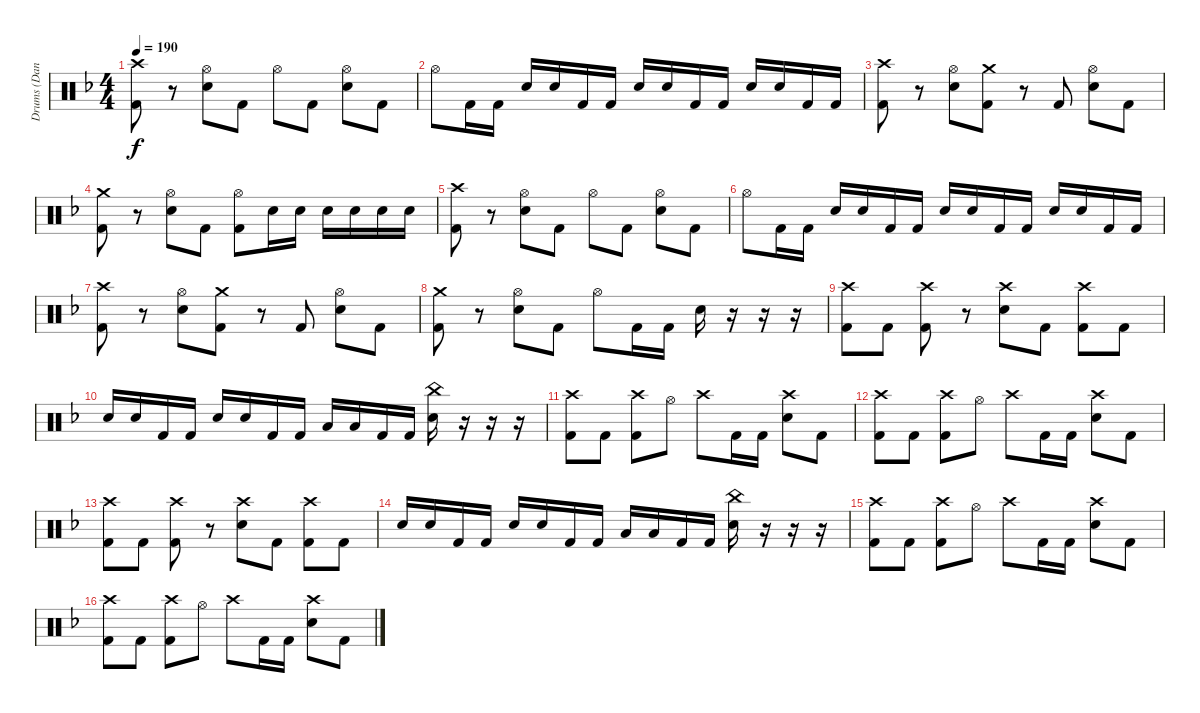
\track ("Drums (Daniel)" "Drums (Dan") {instrument percussion}
\staff {score}
\articulation defaults
\ts (4 4)
\tempo 190
\clef neutral
\ks dminor
("Crash high (hit)" "Kick (hit) 2").8{dy f} r.8 ("Hi-Hat (open)" "Electric Snare (hit)").8 "Kick (hit) 2".8 "Hi-Hat (open)".8 "Kick (hit) 2".8 ("Hi-Hat (open)" "Electric Snare (hit)").8 "Kick (hit) 2".8 |
"Hi-Hat (open)".8 "Kick (hit) 2".16 "Kick (hit) 2".16 "Electric Snare (hit)".16 "Electric Snare (hit)".16 "Kick (hit) 2".16 "Kick (hit) 2".16 "Electric Snare (hit)".16 "Electric Snare (hit)".16 "Kick (hit) 2".16 "Kick (hit) 2".16 "Electric Snare (hit)".16 "Electric Snare (hit)".16 "Kick (hit) 2".16 "Kick (hit) 2".16 |
("Crash high (hit)" "Kick (hit) 2").8 r.8 ("Hi-Hat (open)" "Electric Snare (hit)").8 ("Crash medium (hit)" "Kick (hit) 2").8 r.8 "Kick (hit) 2".8 ("Hi-Hat (open)" "Electric Snare (hit)").8 "Kick (hit) 2".8 |
("Crash medium (hit)" "Kick (hit) 2").8 r.8 ("Hi-Hat (open)" "Electric Snare (hit)").8 "Kick (hit) 2".8 ("Hi-Hat (open)" "Kick (hit) 2").8 "Electric Snare (hit)".16 "Electric Snare (hit)".16 "Electric Snare (hit)".16 "Electric Snare (hit)".16 "Electric Snare (hit)".16 "Electric Snare (hit)".16 |
("Crash high (hit)" "Kick (hit) 2").8 r.8 ("Hi-Hat (open)" "Electric Snare (hit)").8 "Kick (hit) 2".8 "Hi-Hat (open)".8 "Kick (hit) 2".8 ("Hi-Hat (open)" "Electric Snare (hit)").8 "Kick (hit) 2".8 |
"Hi-Hat (open)".8 "Kick (hit) 2".16 "Kick (hit) 2".16 "Electric Snare (hit)".16 "Electric Snare (hit)".16 "Kick (hit) 2".16 "Kick (hit) 2".16 "Electric Snare (hit)".16 "Electric Snare (hit)".16 "Kick (hit) 2".16 "Kick (hit) 2".16 "Electric Snare (hit)".16 "Electric Snare (hit)".16 "Kick (hit) 2".16 "Kick (hit) 2".16 |
("Crash high (hit)" "Kick (hit) 2").8 r.8 ("Hi-Hat (open)" "Electric Snare (hit)").8 ("Crash medium (hit)" "Kick (hit) 2").8 r.8 "Kick (hit) 2".8 ("Hi-Hat (open)" "Electric Snare (hit)").8 "Kick (hit) 2".8 |
("Crash medium (hit)" "Kick (hit) 2").8 r.8 ("Hi-Hat (open)" "Electric Snare (hit)").8 "Kick (hit) 2".8 "Hi-Hat (open)".8 "Kick (hit) 2".16 "Kick (hit) 2".16 "Electric Snare (hit)".16 r.16 r.16 r.16 |
("Crash high (hit)" "Kick (hit) 2").8 "Kick (hit) 2".8 ("Crash high (hit)" "Kick (hit) 2").8 r.8 ("Crash high (hit)" "Electric Snare (hit)").8 "Kick (hit) 2".8 ("Crash high (hit)" "Kick (hit) 2").8 "Kick (hit) 2".8 |
"Electric Snare (hit)".16 "Electric Snare (hit)".16 "Kick (hit) 2".16 "Kick (hit) 2".16 "Electric Snare (hit)".16 "Electric Snare (hit)".16 "Kick (hit) 2".16 "Kick (hit) 2".16 "Low Tom (hit)".16 "Low Tom (hit)".16 "Kick (hit) 2".16 "Kick (hit) 2".16 ("China (hit)" "Electric Snare (hit)").16 r.16 r.16 r.16 |
("Crash high (hit)" "Kick (hit) 2").8 "Kick (hit) 2".8 ("Crash high (hit)" "Kick (hit) 2").8 "Hi-Hat (open)".8 "Crash high (hit)".8 "Kick (hit) 2".16 "Kick (hit) 2".16 ("Crash high (hit)" "Electric Snare (hit)").8 "Kick (hit) 2".8 |
("Crash high (hit)" "Kick (hit) 2").8 "Kick (hit) 2".8 ("Crash high (hit)" "Kick (hit) 2").8 "Hi-Hat (open)".8 "Crash high (hit)".8 "Kick (hit) 2".16 "Kick (hit) 2".16 ("Crash high (hit)" "Electric Snare (hit)").8 "Kick (hit) 2".8 |
("Crash high (hit)" "Kick (hit) 2").8 "Kick (hit) 2".8 ("Crash high (hit)" "Kick (hit) 2").8 r.8 ("Crash high (hit)" "Electric Snare (hit)").8 "Kick (hit) 2".8 ("Crash high (hit)" "Kick (hit) 2").8 "Kick (hit) 2".8 |
"Electric Snare (hit)".16 "Electric Snare (hit)".16 "Kick (hit) 2".16 "Kick (hit) 2".16 "Electric Snare (hit)".16 "Electric Snare (hit)".16 "Kick (hit) 2".16 "Kick (hit) 2".16 "Low Tom (hit)".16 "Low Tom (hit)".16 "Kick (hit) 2".16 "Kick (hit) 2".16 ("China (hit)" "Electric Snare (hit)").16 r.16 r.16 r.16 |
("Crash high (hit)" "Kick (hit) 2").8 "Kick (hit) 2".8 ("Crash high (hit)" "Kick (hit) 2").8 "Hi-Hat (open)".8 "Crash high (hit)".8 "Kick (hit) 2".16 "Kick (hit) 2".16 ("Crash high (hit)" "Electric Snare (hit)").8 "Kick (hit) 2".8 |
("Crash high (hit)" "Kick (hit) 2").8 "Kick (hit) 2".8 ("Crash high (hit)" "Kick (hit) 2").8 "Hi-Hat (open)".8 "Crash high (hit)".8 "Kick (hit) 2".16 "Kick (hit) 2".16 ("Crash high (hit)" "Electric Snare (hit)").8 "Kick (hit) 2".8
